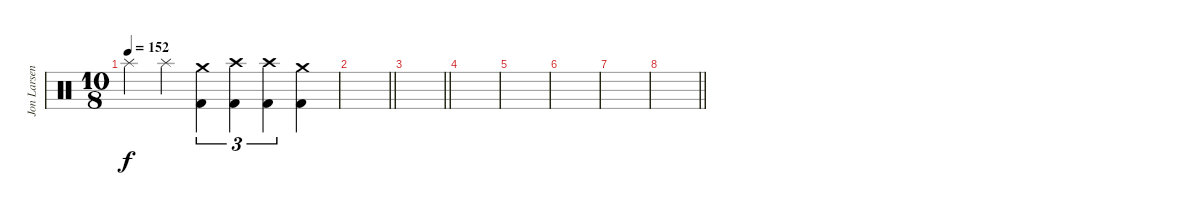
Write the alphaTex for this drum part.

\track ("Jon Larsen" "Jon Larsen") {instrument percussion}
\staff {score}
\articulation defaults
\ts (10 8)
\tempo 152
\clef neutral
\ks c "Splash (hit)".4{dy f} "Splash (hit)".4
("Kick (hit) 2" "Crash medium (hit)").4{tu (3 2)} ("Kick (hit) 2" "Crash high (hit)").4{tu (3 2)} ("Kick (hit) 2" "Crash high (hit)").4{tu (3 2)} ("Kick (hit) 2" "Crash medium (hit)").4 |
\barLineRight lightlight
|
\barLineRight lightlight
|
|
|
|
|
\barLineRight lightlight
